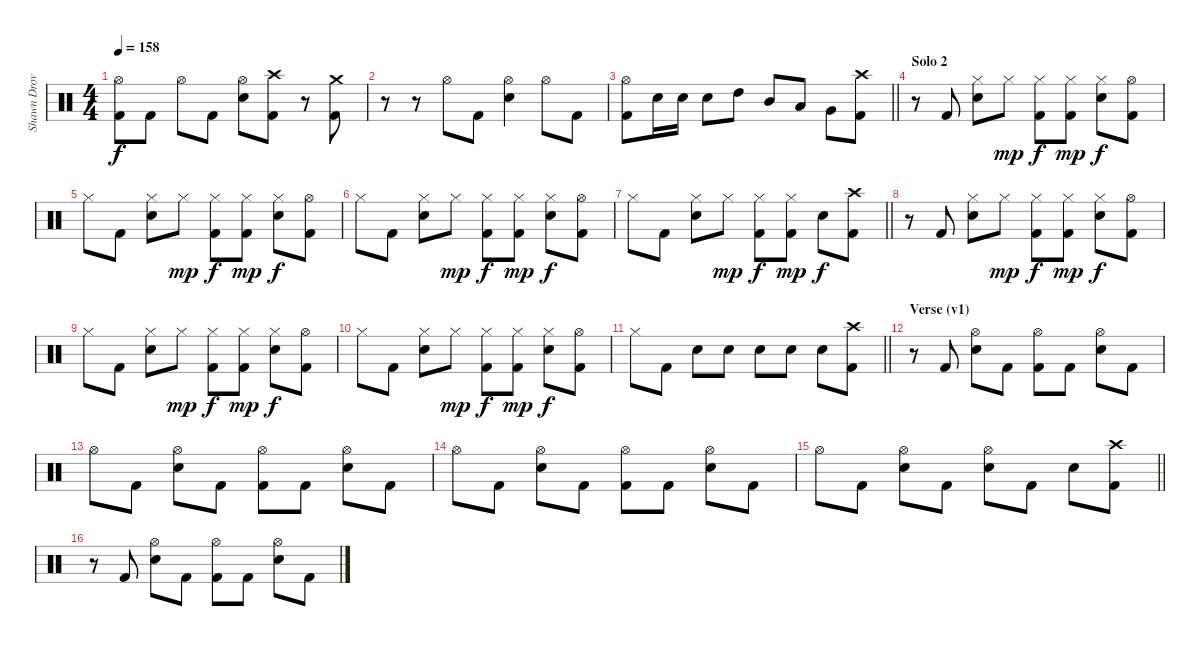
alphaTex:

\track ("Shawn Drover" "Shawn Drov") {instrument percussion}
\staff
\articulation defaults
\ts (4 4)
\tempo 158
\clef neutral
\ks c
("Hi-Hat (open)" "Kick (hit) 2").8{dy f} "Kick (hit) 2".8 "Hi-Hat (open)".8 "Kick (hit) 2".8 ("Hi-Hat (open)" "Snare (hit) 2").8 ("Crash high (hit)" "Kick (hit) 2").8 r.8 ("Crash medium (hit)" "Kick (hit) 2").8 |
r.8 r.8 "Hi-Hat (open)".8 "Kick (hit) 2".8 ("Hi-Hat (open)" "Snare (hit) 2").4 "Hi-Hat (open)".8 "Kick (hit) 2".8 |
\barLineRight lightlight
("Hi-Hat (open)" "Kick (hit) 2").8 "Snare (hit) 2".16 "Snare (hit) 2".16 "Snare (hit) 2".8 "High Tom (hit)".8 "Mid Tom (hit)".8 "Low Tom (hit)".8 "Very Low Tom (hit)".8 ("Crash high (hit)" "Kick (hit) 2").8 |
\section ("" "Solo 2")
r.8 "Kick (hit) 2".8 ("Hi-Hat (closed)" "Snare (hit) 2").8 "Hi-Hat (closed)".8{dy mp} ("Hi-Hat (closed)" "Kick (hit) 2").8{dy f} ("Hi-Hat (closed)" "Kick (hit) 2").8{dy mp} ("Hi-Hat (closed)" "Snare (hit) 2").8{dy f} ("Hi-Hat (open)" "Kick (hit) 2").8 |
"Hi-Hat (closed)".8 "Kick (hit) 2".8 ("Hi-Hat (closed)" "Snare (hit) 2").8 "Hi-Hat (closed)".8{dy mp} ("Hi-Hat (closed)" "Kick (hit) 2").8{dy f} ("Hi-Hat (closed)" "Kick (hit) 2").8{dy mp} ("Hi-Hat (closed)" "Snare (hit) 2").8{dy f} ("Hi-Hat (open)" "Kick (hit) 2").8 |
"Hi-Hat (closed)".8 "Kick (hit) 2".8 ("Hi-Hat (closed)" "Snare (hit) 2").8 "Hi-Hat (closed)".8{dy mp} ("Hi-Hat (closed)" "Kick (hit) 2").8{dy f} ("Hi-Hat (closed)" "Kick (hit) 2").8{dy mp} ("Hi-Hat (closed)" "Snare (hit) 2").8{dy f} ("Hi-Hat (open)" "Kick (hit) 2").8 |
\barLineRight lightlight "Hi-Hat (closed)".8 "Kick (hit) 2".8
("Hi-Hat (closed)" "Snare (hit) 2").8 "Hi-Hat (closed)".8{dy mp} ("Hi-Hat (closed)" "Kick (hit) 2").8{dy f} ("Hi-Hat (closed)" "Kick (hit) 2").8{dy mp} "Snare (hit) 2".8{dy f} ("Crash high (hit)" "Kick (hit) 2").8 |
r.8 "Kick (hit) 2".8 ("Hi-Hat (closed)" "Snare (hit) 2").8 "Hi-Hat (closed)".8{dy mp} ("Hi-Hat (closed)" "Kick (hit) 2").8{dy f} ("Hi-Hat (closed)" "Kick (hit) 2").8{dy mp} ("Hi-Hat (closed)" "Snare (hit) 2").8{dy f} ("Hi-Hat (open)" "Kick (hit) 2").8 |
"Hi-Hat (closed)".8 "Kick (hit) 2".8 ("Hi-Hat (closed)" "Snare (hit) 2").8 "Hi-Hat (closed)".8{dy mp} ("Hi-Hat (closed)" "Kick (hit) 2").8{dy f} ("Hi-Hat (closed)" "Kick (hit) 2").8{dy mp} ("Hi-Hat (closed)" "Snare (hit) 2").8{dy f} ("Hi-Hat (open)" "Kick (hit) 2").8 |
"Hi-Hat (closed)".8 "Kick (hit) 2".8 ("Hi-Hat (closed)" "Snare (hit) 2").8 "Hi-Hat (closed)".8{dy mp} ("Hi-Hat (closed)" "Kick (hit) 2").8{dy f} ("Hi-Hat (closed)" "Kick (hit) 2").8{dy mp} ("Hi-Hat (closed)" "Snare (hit) 2").8{dy f} ("Hi-Hat (open)" "Kick (hit) 2").8 |
\barLineRight lightlight "Hi-Hat (closed)".8 "Kick (hit) 2".8 "Snare (hit) 2".8 "Snare (hit) 2".8 "Snare (hit) 2".8 "Snare (hit) 2".8 "Snare (hit) 2".8
("Crash high (hit)" "Kick (hit) 2").8 |
\section ("" "Verse (v1)")
r.8 "Kick (hit) 2".8 ("Hi-Hat (open)" "Snare (hit) 2").8 "Kick (hit) 2".8 ("Hi-Hat (open)" "Kick (hit) 2").8 "Kick (hit) 2".8 ("Hi-Hat (open)" "Snare (hit) 2").8 "Kick (hit) 2".8 |
"Hi-Hat (open)".8 "Kick (hit) 2".8 ("Hi-Hat (open)" "Snare (hit) 2").8 "Kick (hit) 2".8 ("Hi-Hat (open)" "Kick (hit) 2").8 "Kick (hit) 2".8 ("Hi-Hat (open)" "Snare (hit) 2").8 "Kick (hit) 2".8 |
"Hi-Hat (open)".8 "Kick (hit) 2".8 ("Hi-Hat (open)" "Snare (hit) 2").8 "Kick (hit) 2".8 ("Hi-Hat (open)" "Kick (hit) 2").8 "Kick (hit) 2".8 ("Hi-Hat (open)" "Snare (hit) 2").8 "Kick (hit) 2".8 |
\barLineRight lightlight "Hi-Hat (open)".8 "Kick (hit) 2".8
("Hi-Hat (open)" "Snare (hit) 2").8 "Kick (hit) 2".8 ("Hi-Hat (open)" "Snare (hit) 2").8 "Kick (hit) 2".8 "Snare (hit) 2".8 ("Crash high (hit)" "Kick (hit) 2").8 |
r.8 "Kick (hit) 2".8 ("Hi-Hat (open)" "Snare (hit) 2").8 "Kick (hit) 2".8 ("Hi-Hat (open)" "Kick (hit) 2").8 "Kick (hit) 2".8 ("Hi-Hat (open)" "Snare (hit) 2").8 "Kick (hit) 2".8
